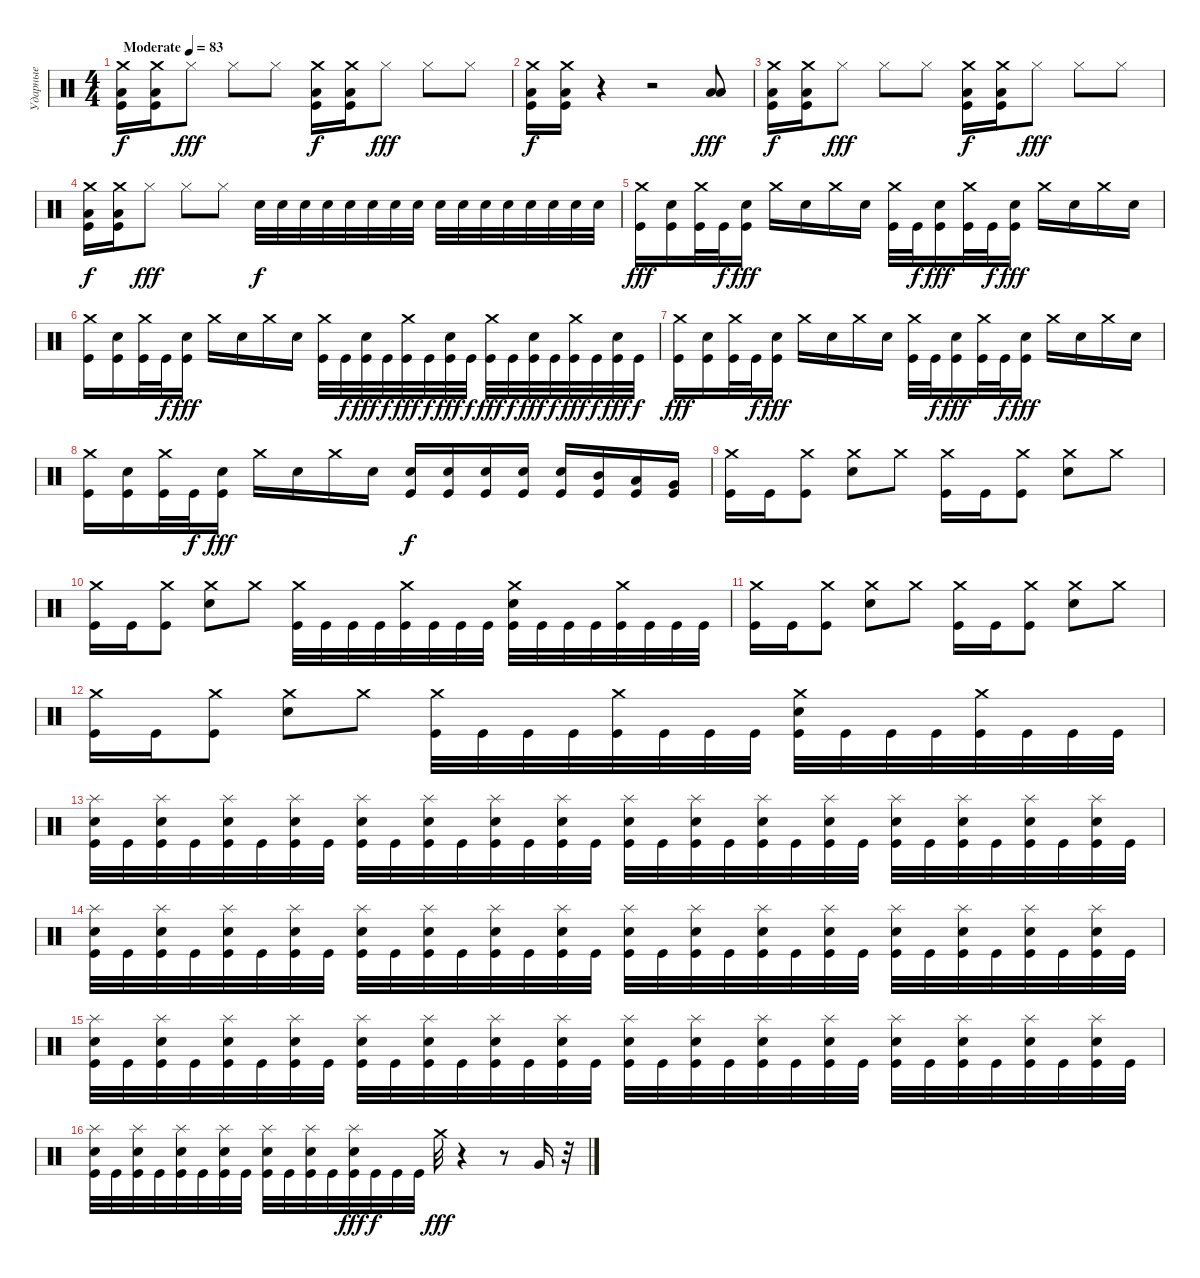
\track ("Ударные" "Ударные") {instrument percussion}
\staff {score}
\articulation defaults
\ts (4 4)
\tempo (83 "Moderate")
\clef neutral
\ks c
("Crash medium (hit)" "Low Floor Tom (hit)" "Kick (hit)").16{dy f} ("Crash medium (hit)" "Low Floor Tom (hit)" "Kick (hit)").16 "Hi-Hat (closed)".8{dy fff} "Hi-Hat (closed)".8 "Hi-Hat (closed)".8 ("Crash medium (hit)" "Low Floor Tom (hit)" "Kick (hit)").16{dy f} ("Crash medium (hit)" "Low Floor Tom (hit)" "Kick (hit)").16 "Hi-Hat (closed)".8{dy fff} "Hi-Hat (closed)".8 "Hi-Hat (closed)".8 |
("Crash medium (hit)" "Low Floor Tom (hit)" "Kick (hit)").16{dy f} ("Crash medium (hit)" "Low Floor Tom (hit)" "Kick (hit)").16 r.4 r.2 ("Low Tom (hit)" "Low Tom (hit)").8{dy fff} |
("Crash medium (hit)" "Low Floor Tom (hit)" "Kick (hit)").16{dy f} ("Crash medium (hit)" "Low Floor Tom (hit)" "Kick (hit)").16 "Hi-Hat (closed)".8{dy fff} "Hi-Hat (closed)".8 "Hi-Hat (closed)".8 ("Crash medium (hit)" "Low Floor Tom (hit)" "Kick (hit)").16{dy f} ("Crash medium (hit)" "Low Floor Tom (hit)" "Kick (hit)").16 "Hi-Hat (closed)".8{dy fff} "Hi-Hat (closed)".8 "Hi-Hat (closed)".8 |
("Crash medium (hit)" "Low Floor Tom (hit)" "Kick (hit)").16{dy f} ("Crash medium (hit)" "Low Floor Tom (hit)" "Kick (hit)").16 "Hi-Hat (closed)".8{dy fff} "Hi-Hat (closed)".8 "Hi-Hat (closed)".8 "Snare (hit) 2".32{dy f} "Snare (hit) 2".32 "Snare (hit) 2".32 "Snare (hit) 2".32 "Snare (hit) 2".32 "Snare (hit) 2".32 "Snare (hit) 2".32 "Snare (hit) 2".32 "Snare (hit) 2".32 "Snare (hit) 2".32 "Snare (hit) 2".32 "Snare (hit) 2".32 "Snare (hit) 2".32 "Snare (hit) 2".32 "Snare (hit) 2".32 "Snare (hit) 2".32 |
("Crash medium (hit)" "Kick (hit)").16{dy fff} ("Snare (hit) 2" "Kick (hit)").16 ("Crash medium (hit)" "Kick (hit)").32 "Kick (hit)".32{dy f} ("Snare (hit) 2" "Kick (hit)").16{dy fff} "Crash medium (hit)".16 "Snare (hit) 2".16 "Crash medium (hit)".16 "Snare (hit) 2".16 ("Crash medium (hit)" "Kick (hit)").32 "Kick (hit)".32{dy f} ("Snare (hit) 2" "Kick (hit)").16{dy fff} ("Crash medium (hit)" "Kick (hit)").32 "Kick (hit)".32{dy f} ("Snare (hit) 2" "Kick (hit)").16{dy fff} "Crash medium (hit)".16 "Snare (hit) 2".16 "Crash medium (hit)".16 "Snare (hit) 2".16 |
("Crash medium (hit)" "Kick (hit)").16 ("Snare (hit) 2" "Kick (hit)").16 ("Crash medium (hit)" "Kick (hit)").32 "Kick (hit)".32{dy f} ("Snare (hit) 2" "Kick (hit)").16{dy fff} "Crash medium (hit)".16 "Snare (hit) 2".16 "Crash medium (hit)".16 "Snare (hit) 2".16 ("Crash medium (hit)" "Kick (hit)").32 "Kick (hit)".32{dy f} ("Snare (hit) 2" "Kick (hit)").32{dy fff} "Kick (hit)".32{dy f} ("Crash medium (hit)" "Kick (hit)").32{dy fff} "Kick (hit)".32{dy f} ("Snare (hit) 2" "Kick (hit)").32{dy fff} "Kick (hit)".32{dy f} ("Crash medium (hit)" "Kick (hit)").32{dy fff} "Kick (hit)".32{dy f} ("Snare (hit) 2" "Kick (hit)").32{dy fff} "Kick (hit)".32{dy f} ("Crash medium (hit)" "Kick (hit)").32{dy fff} "Kick (hit)".32{dy f} ("Snare (hit) 2" "Kick (hit)").32{dy fff} "Kick (hit)".32{dy f} |
("Crash medium (hit)" "Kick (hit)").16{dy fff} ("Snare (hit) 2" "Kick (hit)").16 ("Crash medium (hit)" "Kick (hit)").32 "Kick (hit)".32{dy f} ("Snare (hit) 2" "Kick (hit)").16{dy fff} "Crash medium (hit)".16 "Snare (hit) 2".16 "Crash medium (hit)".16 "Snare (hit) 2".16 ("Crash medium (hit)" "Kick (hit)").32 "Kick (hit)".32{dy f} ("Snare (hit) 2" "Kick (hit)").16{dy fff} ("Crash medium (hit)" "Kick (hit)").32 "Kick (hit)".32{dy f} ("Snare (hit) 2" "Kick (hit)").16{dy fff} "Crash medium (hit)".16 "Snare (hit) 2".16 "Crash medium (hit)".16 "Snare (hit) 2".16 |
("Crash medium (hit)" "Kick (hit)").16 ("Snare (hit) 2" "Kick (hit)").16 ("Crash medium (hit)" "Kick (hit)").32 "Kick (hit)".32{dy f} ("Snare (hit) 2" "Kick (hit)").16{dy fff} "Crash medium (hit)".16 "Snare (hit) 2".16 "Crash medium (hit)".16 "Snare (hit) 2".16 ("Snare (hit) 2" "Kick (hit)").16{dy f} ("Snare (hit) 2" "Kick (hit)").16 ("Snare (hit) 2" "Kick (hit)").16 ("Snare (hit) 2" "Kick (hit)").16 ("Snare (hit) 2" "Kick (hit)").16 ("Mid Tom (hit)" "Kick (hit)").16 ("Low Tom (hit)" "Kick (hit)").16 ("Very Low Tom (hit)" "Kick (hit)").16 |
("Crash medium (hit)" "Kick (hit)").16 "Kick (hit)".16 ("Crash medium (hit)" "Kick (hit)").8 ("Crash medium (hit)" "Snare (hit) 2").8 "Crash medium (hit)".8 ("Crash medium (hit)" "Kick (hit)").16 "Kick (hit)".16 ("Crash medium (hit)" "Kick (hit)").8 ("Crash medium (hit)" "Snare (hit) 2").8 "Crash medium (hit)".8 |
("Crash medium (hit)" "Kick (hit)").16 "Kick (hit)".16 ("Crash medium (hit)" "Kick (hit)").8 ("Crash medium (hit)" "Snare (hit) 2").8 "Crash medium (hit)".8 ("Crash medium (hit)" "Kick (hit)").32 "Kick (hit)".32 "Kick (hit)".32 "Kick (hit)".32 ("Crash medium (hit)" "Kick (hit)").32 "Kick (hit)".32 "Kick (hit)".32 "Kick (hit)".32 ("Crash medium (hit)" "Snare (hit) 2" "Kick (hit)").32 "Kick (hit)".32 "Kick (hit)".32 "Kick (hit)".32 ("Crash medium (hit)" "Kick (hit)").32 "Kick (hit)".32 "Kick (hit)".32 "Kick (hit)".32 |
("Crash medium (hit)" "Kick (hit)").16 "Kick (hit)".16 ("Crash medium (hit)" "Kick (hit)").8 ("Crash medium (hit)" "Snare (hit) 2").8 "Crash medium (hit)".8 ("Crash medium (hit)" "Kick (hit)").16 "Kick (hit)".16 ("Crash medium (hit)" "Kick (hit)").8 ("Crash medium (hit)" "Snare (hit) 2").8 "Crash medium (hit)".8 |
("Crash medium (hit)" "Kick (hit)").16 "Kick (hit)".16 ("Crash medium (hit)" "Kick (hit)").8 ("Crash medium (hit)" "Snare (hit) 2").8 "Crash medium (hit)".8 ("Crash medium (hit)" "Kick (hit)").32 "Kick (hit)".32 "Kick (hit)".32 "Kick (hit)".32 ("Crash medium (hit)" "Kick (hit)").32 "Kick (hit)".32 "Kick (hit)".32 "Kick (hit)".32 ("Crash medium (hit)" "Snare (hit) 2" "Kick (hit)").32 "Kick (hit)".32 "Kick (hit)".32 "Kick (hit)".32 ("Crash medium (hit)" "Kick (hit)").32 "Kick (hit)".32 "Kick (hit)".32 "Kick (hit)".32 |
("Splash (hit)" "Snare (hit) 2" "Kick (hit)").32 "Kick (hit)".32 ("Splash (hit)" "Snare (hit) 2" "Kick (hit)").32 "Kick (hit)".32 ("Splash (hit)" "Snare (hit) 2" "Kick (hit)").32 "Kick (hit)".32 ("Splash (hit)" "Snare (hit) 2" "Kick (hit)").32 "Kick (hit)".32 ("Splash (hit)" "Snare (hit) 2" "Kick (hit)").32 "Kick (hit)".32 ("Splash (hit)" "Snare (hit) 2" "Kick (hit)").32 "Kick (hit)".32 ("Splash (hit)" "Snare (hit) 2" "Kick (hit)").32 "Kick (hit)".32 ("Splash (hit)" "Snare (hit) 2" "Kick (hit)").32 "Kick (hit)".32 ("Splash (hit)" "Snare (hit) 2" "Kick (hit)").32 "Kick (hit)".32 ("Splash (hit)" "Snare (hit) 2" "Kick (hit)").32 "Kick (hit)".32 ("Splash (hit)" "Snare (hit) 2" "Kick (hit)").32 "Kick (hit)".32 ("Splash (hit)" "Snare (hit) 2" "Kick (hit)").32 "Kick (hit)".32 ("Splash (hit)" "Snare (hit) 2" "Kick (hit)").32 "Kick (hit)".32 ("Splash (hit)" "Snare (hit) 2" "Kick (hit)").32 "Kick (hit)".32 ("Splash (hit)" "Snare (hit) 2" "Kick (hit)").32 "Kick (hit)".32 ("Splash (hit)" "Snare (hit) 2" "Kick (hit)").32 "Kick (hit)".32 |
("Splash (hit)" "Snare (hit) 2" "Kick (hit)").32 "Kick (hit)".32 ("Splash (hit)" "Snare (hit) 2" "Kick (hit)").32 "Kick (hit)".32 ("Splash (hit)" "Snare (hit) 2" "Kick (hit)").32 "Kick (hit)".32 ("Splash (hit)" "Snare (hit) 2" "Kick (hit)").32 "Kick (hit)".32 ("Splash (hit)" "Snare (hit) 2" "Kick (hit)").32 "Kick (hit)".32 ("Splash (hit)" "Snare (hit) 2" "Kick (hit)").32 "Kick (hit)".32 ("Splash (hit)" "Snare (hit) 2" "Kick (hit)").32 "Kick (hit)".32 ("Splash (hit)" "Snare (hit) 2" "Kick (hit)").32 "Kick (hit)".32 ("Splash (hit)" "Snare (hit) 2" "Kick (hit)").32 "Kick (hit)".32 ("Splash (hit)" "Snare (hit) 2" "Kick (hit)").32 "Kick (hit)".32 ("Splash (hit)" "Snare (hit) 2" "Kick (hit)").32 "Kick (hit)".32 ("Splash (hit)" "Snare (hit) 2" "Kick (hit)").32 "Kick (hit)".32 ("Splash (hit)" "Snare (hit) 2" "Kick (hit)").32 "Kick (hit)".32 ("Splash (hit)" "Snare (hit) 2" "Kick (hit)").32 "Kick (hit)".32 ("Splash (hit)" "Snare (hit) 2" "Kick (hit)").32 "Kick (hit)".32 ("Splash (hit)" "Snare (hit) 2" "Kick (hit)").32 "Kick (hit)".32 |
("Splash (hit)" "Snare (hit) 2" "Kick (hit)").32 "Kick (hit)".32 ("Splash (hit)" "Snare (hit) 2" "Kick (hit)").32 "Kick (hit)".32 ("Splash (hit)" "Snare (hit) 2" "Kick (hit)").32 "Kick (hit)".32 ("Splash (hit)" "Snare (hit) 2" "Kick (hit)").32 "Kick (hit)".32 ("Splash (hit)" "Snare (hit) 2" "Kick (hit)").32 "Kick (hit)".32 ("Splash (hit)" "Snare (hit) 2" "Kick (hit)").32 "Kick (hit)".32 ("Splash (hit)" "Snare (hit) 2" "Kick (hit)").32 "Kick (hit)".32 ("Splash (hit)" "Snare (hit) 2" "Kick (hit)").32 "Kick (hit)".32 ("Splash (hit)" "Snare (hit) 2" "Kick (hit)").32 "Kick (hit)".32 ("Splash (hit)" "Snare (hit) 2" "Kick (hit)").32 "Kick (hit)".32 ("Splash (hit)" "Snare (hit) 2" "Kick (hit)").32 "Kick (hit)".32 ("Splash (hit)" "Snare (hit) 2" "Kick (hit)").32 "Kick (hit)".32 ("Splash (hit)" "Snare (hit) 2" "Kick (hit)").32 "Kick (hit)".32 ("Splash (hit)" "Snare (hit) 2" "Kick (hit)").32 "Kick (hit)".32 ("Splash (hit)" "Snare (hit) 2" "Kick (hit)").32 "Kick (hit)".32 ("Splash (hit)" "Snare (hit) 2" "Kick (hit)").32 "Kick (hit)".32 |
("Splash (hit)" "Snare (hit) 2" "Kick (hit)").32 "Kick (hit)".32 ("Splash (hit)" "Snare (hit) 2" "Kick (hit)").32 "Kick (hit)".32 ("Splash (hit)" "Snare (hit) 2" "Kick (hit)").32 "Kick (hit)".32 ("Splash (hit)" "Snare (hit) 2" "Kick (hit)").32 "Kick (hit)".32 ("Splash (hit)" "Snare (hit) 2" "Kick (hit)").32 "Kick (hit)".32 ("Splash (hit)" "Snare (hit) 2" "Kick (hit)").32 "Kick (hit)".32 ("Splash (hit)" "Snare (hit) 2" "Kick (hit)").32{dy fff} "Kick (hit)".32{dy f} "Kick (hit)".32 "Kick (hit)".32 "Crash medium (hit)".32{dy fff} r.4 r.8 "Very Low Tom (hit)".16 r.32
